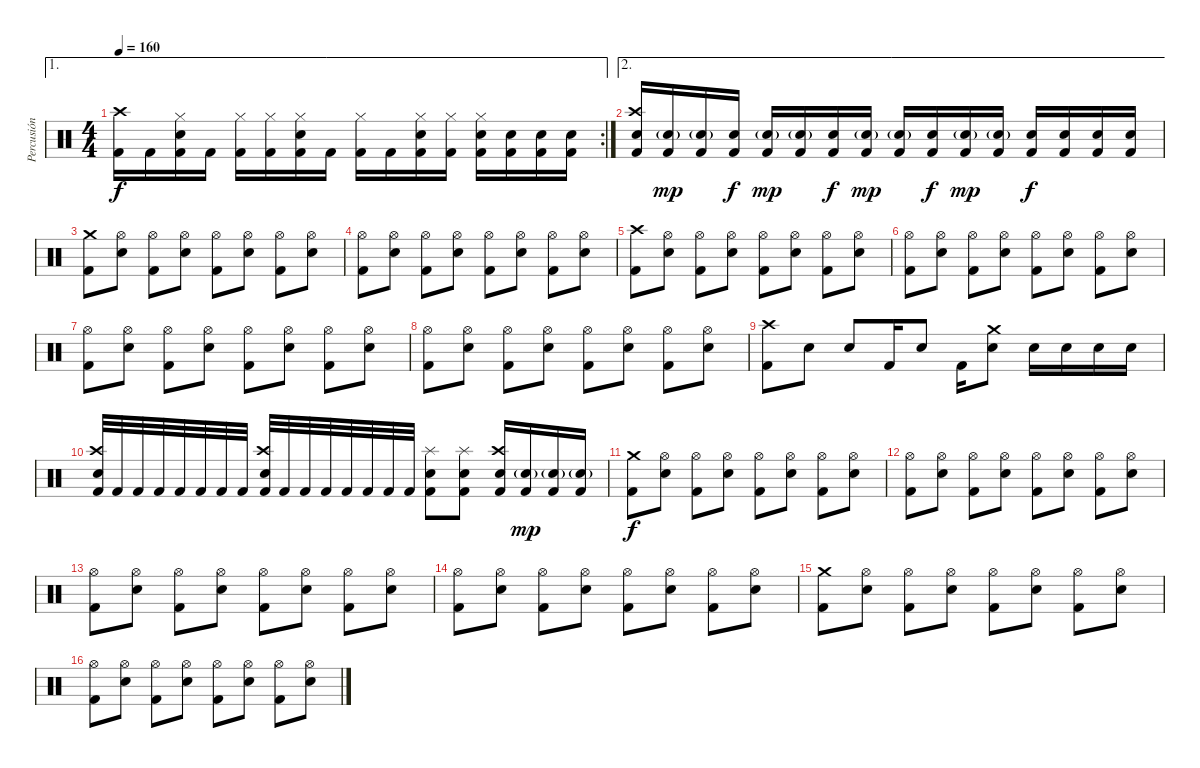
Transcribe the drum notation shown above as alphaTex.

\track ("Percusión" "Percusión") {instrument percussion}
\staff {score}
\articulation defaults
\ae 1
\rc 2
\ts (4 4)
\tempo 160
\clef neutral
\ks c
("Kick (hit) 2" "Crash high (hit)").16{dy f} "Kick (hit) 2".16 ("Kick (hit) 2" "Snare (hit) 2" "Hi-Hat (closed)").16 "Kick (hit) 2".16 ("Kick (hit) 2" "Hi-Hat (closed)").16 ("Kick (hit) 2" "Hi-Hat (closed)").16 ("Kick (hit) 2" "Snare (hit) 2" "Hi-Hat (closed)").16 "Kick (hit) 2".16 ("Kick (hit) 2" "Hi-Hat (closed)").16 "Kick (hit) 2".16 ("Kick (hit) 2" "Snare (hit) 2" "Hi-Hat (closed)").16 ("Kick (hit) 2" "Hi-Hat (closed)").16 ("Kick (hit) 2" "Snare (hit) 2" "Hi-Hat (closed)").16 ("Kick (hit) 2" "Snare (hit) 2").16 ("Kick (hit) 2" "Snare (hit) 2").16 ("Kick (hit) 2" "Snare (hit) 2").16 |
\ae 2
("Kick (hit) 2" "Snare (hit) 2" "Crash high (hit)").16 ("Kick (hit) 2" "Snare (hit) 2"{g}).16{dy mp} ("Kick (hit) 2" "Snare (hit) 2"{g}).16 ("Kick (hit) 2" "Snare (hit) 2").16{dy f} ("Kick (hit) 2" "Snare (hit) 2"{g}).16{dy mp} ("Kick (hit) 2" "Snare (hit) 2"{g}).16 ("Kick (hit) 2" "Snare (hit) 2").16{dy f} ("Kick (hit) 2" "Snare (hit) 2"{g}).16{dy mp} ("Kick (hit) 2" "Snare (hit) 2"{g}).16 ("Kick (hit) 2" "Snare (hit) 2").16{dy f} ("Kick (hit) 2" "Snare (hit) 2"{g}).16{dy mp} ("Kick (hit) 2" "Snare (hit) 2"{g}).16 ("Kick (hit) 2" "Snare (hit) 2").16{dy f} ("Kick (hit) 2" "Snare (hit) 2").16 ("Kick (hit) 2" "Snare (hit) 2").16 ("Kick (hit) 2" "Snare (hit) 2").16 |
("Kick (hit) 2" "Crash medium (hit)").8 ("Snare (hit) 2" "Hi-Hat (open)").8 ("Kick (hit) 2" "Hi-Hat (open)").8 ("Snare (hit) 2" "Hi-Hat (open)").8 ("Kick (hit) 2" "Hi-Hat (open)").8 ("Snare (hit) 2" "Hi-Hat (open)").8 ("Kick (hit) 2" "Hi-Hat (open)").8 ("Snare (hit) 2" "Hi-Hat (open)").8 |
("Kick (hit) 2" "Hi-Hat (open)").8 ("Snare (hit) 2" "Hi-Hat (open)").8 ("Kick (hit) 2" "Hi-Hat (open)").8 ("Snare (hit) 2" "Hi-Hat (open)").8 ("Kick (hit) 2" "Hi-Hat (open)").8 ("Snare (hit) 2" "Hi-Hat (open)").8 ("Kick (hit) 2" "Hi-Hat (open)").8 ("Snare (hit) 2" "Hi-Hat (open)").8 |
("Kick (hit) 2" "Crash high (hit)").8 ("Snare (hit) 2" "Hi-Hat (open)").8 ("Kick (hit) 2" "Hi-Hat (open)").8 ("Snare (hit) 2" "Hi-Hat (open)").8 ("Kick (hit) 2" "Hi-Hat (open)").8 ("Snare (hit) 2" "Hi-Hat (open)").8 ("Kick (hit) 2" "Hi-Hat (open)").8 ("Snare (hit) 2" "Hi-Hat (open)").8 |
("Kick (hit) 2" "Hi-Hat (open)").8 ("Snare (hit) 2" "Hi-Hat (open)").8 ("Kick (hit) 2" "Hi-Hat (open)").8 ("Snare (hit) 2" "Hi-Hat (open)").8 ("Kick (hit) 2" "Hi-Hat (open)").8 ("Snare (hit) 2" "Hi-Hat (open)").8 ("Kick (hit) 2" "Hi-Hat (open)").8 ("Snare (hit) 2" "Hi-Hat (open)").8 |
("Kick (hit) 2" "Hi-Hat (open)").8 ("Snare (hit) 2" "Hi-Hat (open)").8 ("Kick (hit) 2" "Hi-Hat (open)").8 ("Snare (hit) 2" "Hi-Hat (open)").8 ("Kick (hit) 2" "Hi-Hat (open)").8 ("Snare (hit) 2" "Hi-Hat (open)").8 ("Kick (hit) 2" "Hi-Hat (open)").8 ("Snare (hit) 2" "Hi-Hat (open)").8 |
("Kick (hit) 2" "Hi-Hat (open)").8 ("Snare (hit) 2" "Hi-Hat (open)").8 ("Kick (hit) 2" "Hi-Hat (open)").8 ("Snare (hit) 2" "Hi-Hat (open)").8 ("Kick (hit) 2" "Hi-Hat (open)").8 ("Snare (hit) 2" "Hi-Hat (open)").8 ("Kick (hit) 2" "Hi-Hat (open)").8 ("Snare (hit) 2" "Hi-Hat (open)").8 |
("Kick (hit) 2" "Crash high (hit)").8 "Snare (hit) 2".8 "Snare (hit) 2".8 "Kick (hit) 2".16 "Snare (hit) 2".8 "Kick (hit) 2".16 ("Snare (hit) 2" "Crash medium (hit)").8 "Snare (hit) 2".16 "Snare (hit) 2".16 "Snare (hit) 2".16 "Snare (hit) 2".16 |
("Kick (hit) 2" "Snare (hit) 2" "Crash high (hit)").32 "Kick (hit) 2".32 "Kick (hit) 2".32 "Kick (hit) 2".32 "Kick (hit) 2".32 "Kick (hit) 2".32 "Kick (hit) 2".32 "Kick (hit) 2".32 ("Kick (hit) 2" "Snare (hit) 2" "Crash high (hit)").32 "Kick (hit) 2".32 "Kick (hit) 2".32 "Kick (hit) 2".32 "Kick (hit) 2".32 "Kick (hit) 2".32 "Kick (hit) 2".32 "Kick (hit) 2".32 ("Kick (hit) 2" "Snare (hit) 2" "Splash (hit)").8 ("Kick (hit) 2" "Snare (hit) 2" "Splash (hit)").8 ("Kick (hit) 2" "Snare (hit) 2" "Crash high (hit)").16 ("Kick (hit) 2" "Snare (hit) 2"{g}).16{dy mp} ("Kick (hit) 2" "Snare (hit) 2"{g}).16 ("Kick (hit) 2" "Snare (hit) 2"{g}).16 |
("Kick (hit) 2" "Crash medium (hit)").8{dy f} ("Snare (hit) 2" "Hi-Hat (open)").8 ("Kick (hit) 2" "Hi-Hat (open)").8 ("Snare (hit) 2" "Hi-Hat (open)").8 ("Kick (hit) 2" "Hi-Hat (open)").8 ("Snare (hit) 2" "Hi-Hat (open)").8 ("Kick (hit) 2" "Hi-Hat (open)").8 ("Snare (hit) 2" "Hi-Hat (open)").8 |
("Kick (hit) 2" "Hi-Hat (open)").8 ("Snare (hit) 2" "Hi-Hat (open)").8 ("Kick (hit) 2" "Hi-Hat (open)").8 ("Snare (hit) 2" "Hi-Hat (open)").8 ("Kick (hit) 2" "Hi-Hat (open)").8 ("Snare (hit) 2" "Hi-Hat (open)").8 ("Kick (hit) 2" "Hi-Hat (open)").8 ("Snare (hit) 2" "Hi-Hat (open)").8 |
("Kick (hit) 2" "Hi-Hat (open)").8 ("Snare (hit) 2" "Hi-Hat (open)").8 ("Kick (hit) 2" "Hi-Hat (open)").8 ("Snare (hit) 2" "Hi-Hat (open)").8 ("Kick (hit) 2" "Hi-Hat (open)").8 ("Snare (hit) 2" "Hi-Hat (open)").8 ("Kick (hit) 2" "Hi-Hat (open)").8 ("Snare (hit) 2" "Hi-Hat (open)").8 |
("Kick (hit) 2" "Hi-Hat (open)").8 ("Snare (hit) 2" "Hi-Hat (open)").8 ("Kick (hit) 2" "Hi-Hat (open)").8 ("Snare (hit) 2" "Hi-Hat (open)").8 ("Kick (hit) 2" "Hi-Hat (open)").8 ("Snare (hit) 2" "Hi-Hat (open)").8 ("Kick (hit) 2" "Hi-Hat (open)").8 ("Snare (hit) 2" "Hi-Hat (open)").8 |
("Kick (hit) 2" "Crash medium (hit)").8 ("Snare (hit) 2" "Hi-Hat (open)").8 ("Kick (hit) 2" "Hi-Hat (open)").8 ("Snare (hit) 2" "Hi-Hat (open)").8 ("Kick (hit) 2" "Hi-Hat (open)").8 ("Snare (hit) 2" "Hi-Hat (open)").8 ("Kick (hit) 2" "Hi-Hat (open)").8 ("Snare (hit) 2" "Hi-Hat (open)").8 |
("Kick (hit) 2" "Hi-Hat (open)").8 ("Snare (hit) 2" "Hi-Hat (open)").8 ("Kick (hit) 2" "Hi-Hat (open)").8 ("Snare (hit) 2" "Hi-Hat (open)").8 ("Kick (hit) 2" "Hi-Hat (open)").8 ("Snare (hit) 2" "Hi-Hat (open)").8 ("Kick (hit) 2" "Hi-Hat (open)").8 ("Snare (hit) 2" "Hi-Hat (open)").8
